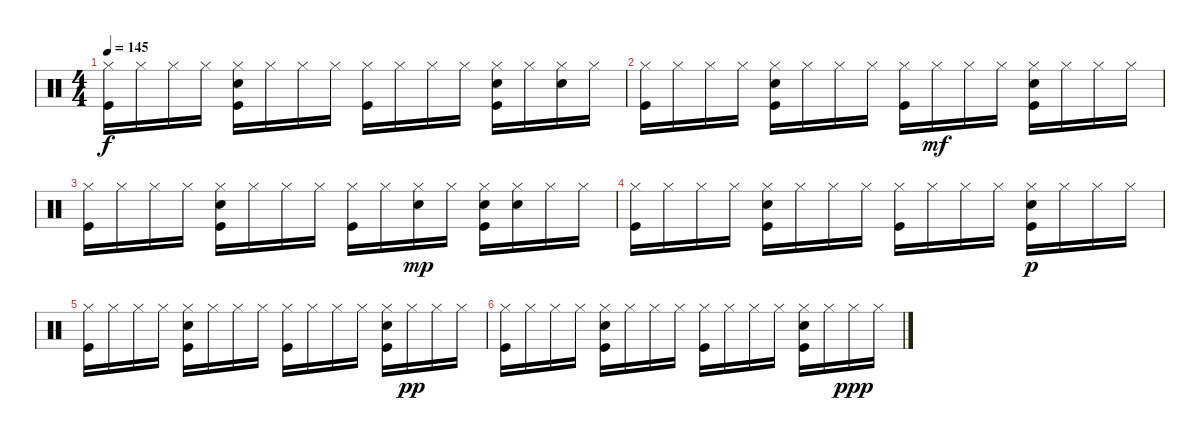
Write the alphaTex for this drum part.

\track "" {instrument percussion}
\staff {score}
\articulation defaults
\ts (4 4)
\tempo 145
\clef neutral
\ks c
("Hi-Hat (closed)" "Kick (hit)").16{dy f} "Hi-Hat (closed)".16 "Hi-Hat (closed)".16 "Hi-Hat (closed)".16 ("Snare (hit) 2" "Hi-Hat (closed)" "Kick (hit)").16 "Hi-Hat (closed)".16 "Hi-Hat (closed)".16 "Hi-Hat (closed)".16 ("Hi-Hat (closed)" "Kick (hit)").16 "Hi-Hat (closed)".16 "Hi-Hat (closed)".16 "Hi-Hat (closed)".16 ("Snare (hit) 2" "Hi-Hat (closed)" "Kick (hit)").16 "Hi-Hat (closed)".16 ("Snare (hit) 2" "Hi-Hat (closed)").16 "Hi-Hat (closed)".16 |
("Hi-Hat (closed)" "Kick (hit)").16 "Hi-Hat (closed)".16 "Hi-Hat (closed)".16 "Hi-Hat (closed)".16 ("Snare (hit) 2" "Hi-Hat (closed)" "Kick (hit)").16 "Hi-Hat (closed)".16 "Hi-Hat (closed)".16 "Hi-Hat (closed)".16 ("Hi-Hat (closed)" "Kick (hit)").16 "Hi-Hat (closed)".16{dy mf} "Hi-Hat (closed)".16 "Hi-Hat (closed)".16 ("Snare (hit) 2" "Hi-Hat (closed)" "Kick (hit)").16 "Hi-Hat (closed)".16 "Hi-Hat (closed)".16 "Hi-Hat (closed)".16 |
("Hi-Hat (closed)" "Kick (hit)").16 "Hi-Hat (closed)".16 "Hi-Hat (closed)".16 "Hi-Hat (closed)".16 ("Snare (hit) 2" "Hi-Hat (closed)" "Kick (hit)").16 "Hi-Hat (closed)".16 "Hi-Hat (closed)".16 "Hi-Hat (closed)".16 ("Hi-Hat (closed)" "Kick (hit)").16 "Hi-Hat (closed)".16 ("Snare (hit) 2" "Hi-Hat (closed)").16{dy mp} "Hi-Hat (closed)".16 ("Snare (hit) 2" "Hi-Hat (closed)" "Kick (hit)").16 ("Snare (hit) 2" "Hi-Hat (closed)").16 "Hi-Hat (closed)".16 "Hi-Hat (closed)".16 |
("Hi-Hat (closed)" "Kick (hit)").16 "Hi-Hat (closed)".16 "Hi-Hat (closed)".16 "Hi-Hat (closed)".16 ("Snare (hit) 2" "Hi-Hat (closed)" "Kick (hit)").16 "Hi-Hat (closed)".16 "Hi-Hat (closed)".16 "Hi-Hat (closed)".16 ("Hi-Hat (closed)" "Kick (hit)").16 "Hi-Hat (closed)".16 "Hi-Hat (closed)".16 "Hi-Hat (closed)".16 ("Snare (hit) 2" "Hi-Hat (closed)" "Kick (hit)").16{dy p} "Hi-Hat (closed)".16 "Hi-Hat (closed)".16 "Hi-Hat (closed)".16 |
("Hi-Hat (closed)" "Kick (hit)").16 "Hi-Hat (closed)".16 "Hi-Hat (closed)".16 "Hi-Hat (closed)".16 ("Snare (hit) 2" "Hi-Hat (closed)" "Kick (hit)").16 "Hi-Hat (closed)".16 "Hi-Hat (closed)".16 "Hi-Hat (closed)".16 ("Hi-Hat (closed)" "Kick (hit)").16 "Hi-Hat (closed)".16 "Hi-Hat (closed)".16 "Hi-Hat (closed)".16 ("Snare (hit) 2" "Hi-Hat (closed)" "Kick (hit)").16 "Hi-Hat (closed)".16{dy pp} "Hi-Hat (closed)".16 "Hi-Hat (closed)".16 |
("Hi-Hat (closed)" "Kick (hit)").16 "Hi-Hat (closed)".16 "Hi-Hat (closed)".16 "Hi-Hat (closed)".16 ("Snare (hit) 2" "Hi-Hat (closed)" "Kick (hit)").16 "Hi-Hat (closed)".16 "Hi-Hat (closed)".16 "Hi-Hat (closed)".16 ("Hi-Hat (closed)" "Kick (hit)").16 "Hi-Hat (closed)".16 "Hi-Hat (closed)".16 "Hi-Hat (closed)".16 ("Snare (hit) 2" "Hi-Hat (closed)" "Kick (hit)").16 "Hi-Hat (closed)".16 "Hi-Hat (closed)".16{dy ppp} "Hi-Hat (closed)".16
